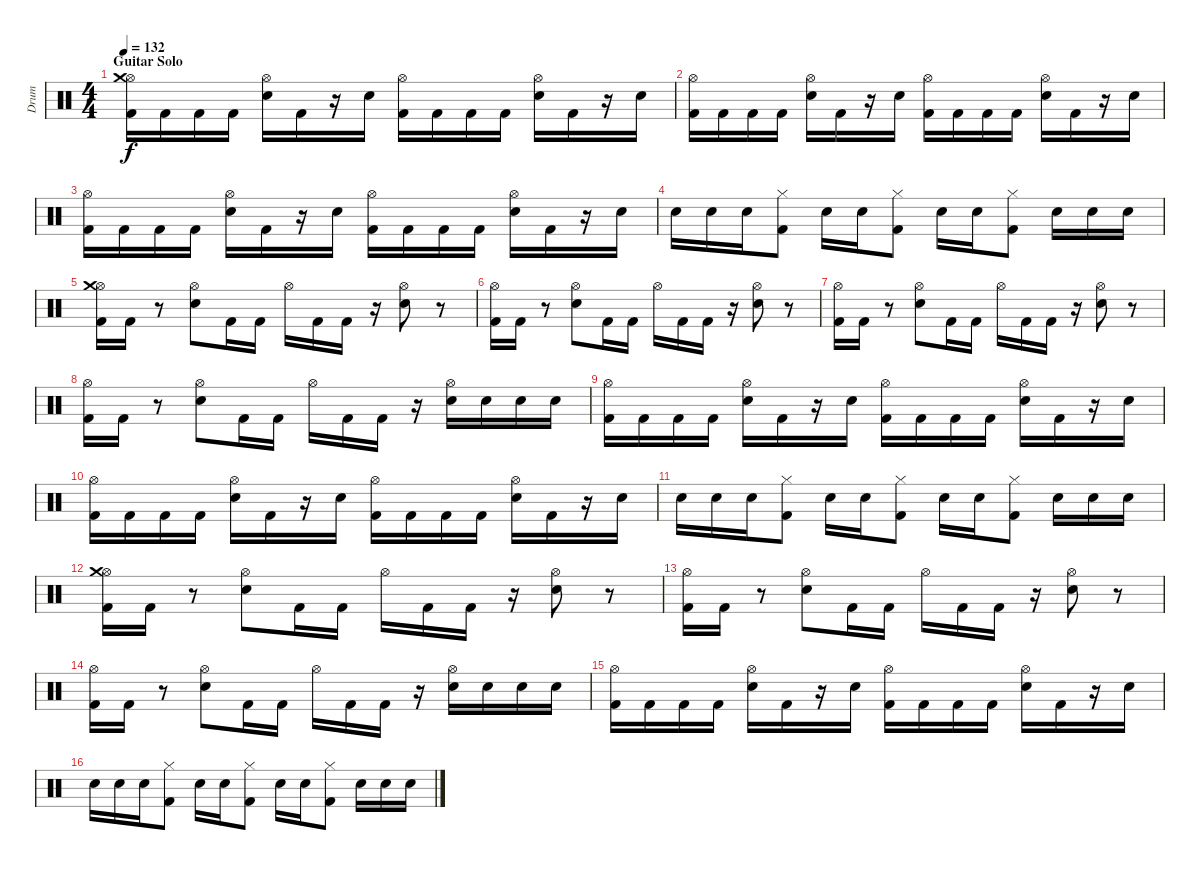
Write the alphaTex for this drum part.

\track (" Drum" " Drum") {instrument percussion}
\staff {score}
\articulation defaults
\ts (4 4)
\section ("" "Guitar Solo")
\tempo 132
\clef neutral
\ks c
("Hi-Hat (open)" "Crash medium (hit)" "Kick (hit) 2").16{dy f} "Kick (hit) 2".16 "Kick (hit) 2".16 "Kick (hit) 2".16 ("Hi-Hat (open)" "Electric Snare (hit)").16 "Kick (hit) 2".16 r.16 "Electric Snare (hit)".16 ("Hi-Hat (open)" "Kick (hit) 2").16 "Kick (hit) 2".16 "Kick (hit) 2".16 "Kick (hit) 2".16 ("Hi-Hat (open)" "Electric Snare (hit)").16 "Kick (hit) 2".16 r.16 "Electric Snare (hit)".16 |
("Hi-Hat (open)" "Kick (hit) 2").16 "Kick (hit) 2".16 "Kick (hit) 2".16 "Kick (hit) 2".16 ("Hi-Hat (open)" "Electric Snare (hit)").16 "Kick (hit) 2".16 r.16 "Electric Snare (hit)".16 ("Hi-Hat (open)" "Kick (hit) 2").16 "Kick (hit) 2".16 "Kick (hit) 2".16 "Kick (hit) 2".16 ("Hi-Hat (open)" "Electric Snare (hit)").16 "Kick (hit) 2".16 r.16 "Electric Snare (hit)".16 |
("Hi-Hat (open)" "Kick (hit) 2").16 "Kick (hit) 2".16 "Kick (hit) 2".16 "Kick (hit) 2".16 ("Hi-Hat (open)" "Electric Snare (hit)").16 "Kick (hit) 2".16 r.16 "Electric Snare (hit)".16 ("Hi-Hat (open)" "Kick (hit) 2").16 "Kick (hit) 2".16 "Kick (hit) 2".16 "Kick (hit) 2".16 ("Hi-Hat (open)" "Electric Snare (hit)").16 "Kick (hit) 2".16 r.16 "Electric Snare (hit)".16 |
"Electric Snare (hit)".16 "Electric Snare (hit)".16 "Electric Snare (hit)".16 ("Hi-Hat (closed)" "Kick (hit) 2").8 "Electric Snare (hit)".16 "Electric Snare (hit)".16 ("Hi-Hat (closed)" "Kick (hit) 2").8 "Electric Snare (hit)".16 "Electric Snare (hit)".16 ("Hi-Hat (closed)" "Kick (hit) 2").8 "Electric Snare (hit)".16 "Electric Snare (hit)".16 "Electric Snare (hit)".16 |
("Kick (hit) 2" "Hi-Hat (open)" "Crash medium (hit)").16 "Kick (hit) 2".16 r.8 ("Electric Snare (hit)" "Hi-Hat (open)").8 "Kick (hit) 2".16 "Kick (hit) 2".16 "Hi-Hat (open)".16 "Kick (hit) 2".16 "Kick (hit) 2".16 r.16 ("Electric Snare (hit)" "Hi-Hat (open)").8 r.8 |
("Kick (hit) 2" "Hi-Hat (open)").16 "Kick (hit) 2".16 r.8 ("Electric Snare (hit)" "Hi-Hat (open)").8 "Kick (hit) 2".16 "Kick (hit) 2".16 "Hi-Hat (open)".16 "Kick (hit) 2".16 "Kick (hit) 2".16 r.16 ("Electric Snare (hit)" "Hi-Hat (open)").8 r.8 |
("Kick (hit) 2" "Hi-Hat (open)").16 "Kick (hit) 2".16 r.8 ("Electric Snare (hit)" "Hi-Hat (open)").8 "Kick (hit) 2".16 "Kick (hit) 2".16 "Hi-Hat (open)".16 "Kick (hit) 2".16 "Kick (hit) 2".16 r.16 ("Electric Snare (hit)" "Hi-Hat (open)").8 r.8 |
("Kick (hit) 2" "Hi-Hat (open)").16 "Kick (hit) 2".16 r.8 ("Electric Snare (hit)" "Hi-Hat (open)").8 "Kick (hit) 2".16 "Kick (hit) 2".16 "Hi-Hat (open)".16 "Kick (hit) 2".16 "Kick (hit) 2".16 r.16 ("Hi-Hat (open)" "Electric Snare (hit)").16 "Electric Snare (hit)".16 "Electric Snare (hit)".16 "Electric Snare (hit)".16 |
("Hi-Hat (open)" "Kick (hit) 2").16 "Kick (hit) 2".16 "Kick (hit) 2".16 "Kick (hit) 2".16 ("Hi-Hat (open)" "Electric Snare (hit)").16 "Kick (hit) 2".16 r.16 "Electric Snare (hit)".16 ("Hi-Hat (open)" "Kick (hit) 2").16 "Kick (hit) 2".16 "Kick (hit) 2".16 "Kick (hit) 2".16 ("Hi-Hat (open)" "Electric Snare (hit)").16 "Kick (hit) 2".16 r.16 "Electric Snare (hit)".16 |
("Hi-Hat (open)" "Kick (hit) 2").16 "Kick (hit) 2".16 "Kick (hit) 2".16 "Kick (hit) 2".16 ("Hi-Hat (open)" "Electric Snare (hit)").16 "Kick (hit) 2".16 r.16 "Electric Snare (hit)".16 ("Hi-Hat (open)" "Kick (hit) 2").16 "Kick (hit) 2".16 "Kick (hit) 2".16 "Kick (hit) 2".16 ("Hi-Hat (open)" "Electric Snare (hit)").16 "Kick (hit) 2".16 r.16 "Electric Snare (hit)".16 |
"Electric Snare (hit)".16 "Electric Snare (hit)".16 "Electric Snare (hit)".16 ("Hi-Hat (closed)" "Kick (hit) 2").8 "Electric Snare (hit)".16 "Electric Snare (hit)".16 ("Hi-Hat (closed)" "Kick (hit) 2").8 "Electric Snare (hit)".16 "Electric Snare (hit)".16 ("Hi-Hat (closed)" "Kick (hit) 2").8 "Electric Snare (hit)".16 "Electric Snare (hit)".16 "Electric Snare (hit)".16 |
("Kick (hit) 2" "Hi-Hat (open)" "Crash medium (hit)").16 "Kick (hit) 2".16 r.8 ("Electric Snare (hit)" "Hi-Hat (open)").8 "Kick (hit) 2".16 "Kick (hit) 2".16 "Hi-Hat (open)".16 "Kick (hit) 2".16 "Kick (hit) 2".16 r.16 ("Electric Snare (hit)" "Hi-Hat (open)").8 r.8 |
("Kick (hit) 2" "Hi-Hat (open)").16 "Kick (hit) 2".16 r.8 ("Electric Snare (hit)" "Hi-Hat (open)").8 "Kick (hit) 2".16 "Kick (hit) 2".16 "Hi-Hat (open)".16 "Kick (hit) 2".16 "Kick (hit) 2".16 r.16 ("Electric Snare (hit)" "Hi-Hat (open)").8 r.8 |
("Kick (hit) 2" "Hi-Hat (open)").16 "Kick (hit) 2".16 r.8 ("Electric Snare (hit)" "Hi-Hat (open)").8 "Kick (hit) 2".16 "Kick (hit) 2".16 "Hi-Hat (open)".16 "Kick (hit) 2".16 "Kick (hit) 2".16 r.16 ("Electric Snare (hit)" "Hi-Hat (open)").16 "Electric Snare (hit)".16 "Electric Snare (hit)".16 "Electric Snare (hit)".16 |
("Hi-Hat (open)" "Kick (hit) 2").16 "Kick (hit) 2".16 "Kick (hit) 2".16 "Kick (hit) 2".16 ("Hi-Hat (open)" "Electric Snare (hit)").16 "Kick (hit) 2".16 r.16 "Electric Snare (hit)".16 ("Hi-Hat (open)" "Kick (hit) 2").16 "Kick (hit) 2".16 "Kick (hit) 2".16 "Kick (hit) 2".16 ("Hi-Hat (open)" "Electric Snare (hit)").16 "Kick (hit) 2".16 r.16 "Electric Snare (hit)".16 |
"Electric Snare (hit)".16 "Electric Snare (hit)".16 "Electric Snare (hit)".16 ("Hi-Hat (closed)" "Kick (hit) 2").8 "Electric Snare (hit)".16 "Electric Snare (hit)".16 ("Hi-Hat (closed)" "Kick (hit) 2").8 "Electric Snare (hit)".16 "Electric Snare (hit)".16 ("Hi-Hat (closed)" "Kick (hit) 2").8 "Electric Snare (hit)".16 "Electric Snare (hit)".16 "Electric Snare (hit)".16
